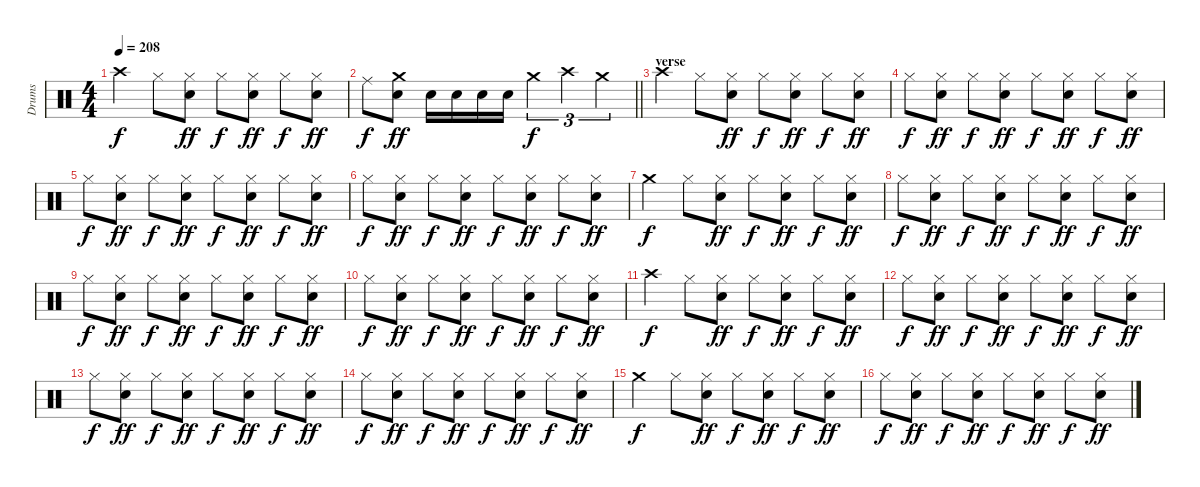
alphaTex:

\track ("Drums" "Drums") {instrument percussion}
\staff {score}
\articulation defaults
\ts (4 4)
\tempo 208
\clef neutral
\ks c "Crash high (hit)".4{dy f} "Hi-Hat (closed)".8
("Hi-Hat (closed)" "Snare (hit) 2").8{dy ff} "Hi-Hat (closed)".8{dy f} ("Hi-Hat (closed)" "Snare (hit) 2").8{dy ff} "Hi-Hat (closed)".8{dy f} ("Hi-Hat (closed)" "Snare (hit) 2").8{dy ff} |
\barLineRight lightlight "Ride (middle)".8{dy f}
("Crash medium (hit)" "Snare (hit) 2").8{dy ff} "Snare (hit) 2".16 "Snare (hit) 2".16 "Snare (hit) 2".16 "Snare (hit) 2".16 "Crash medium (hit)".4{tu (3 2) dy f} "Crash high (hit)".4{tu (3 2)} "Crash medium (hit)".4{tu (3 2)} |
\section ("" "verse")
"Crash high (hit)".4 "Hi-Hat (closed)".8 ("Hi-Hat (closed)" "Snare (hit) 2").8{dy ff} "Hi-Hat (closed)".8{dy f} ("Hi-Hat (closed)" "Snare (hit) 2").8{dy ff} "Hi-Hat (closed)".8{dy f} ("Hi-Hat (closed)" "Snare (hit) 2").8{dy ff} |
"Hi-Hat (closed)".8{dy f} ("Hi-Hat (closed)" "Snare (hit) 2").8{dy ff} "Hi-Hat (closed)".8{dy f} ("Hi-Hat (closed)" "Snare (hit) 2").8{dy ff} "Hi-Hat (closed)".8{dy f} ("Hi-Hat (closed)" "Snare (hit) 2").8{dy ff} "Hi-Hat (closed)".8{dy f} ("Hi-Hat (closed)" "Snare (hit) 2").8{dy ff} |
"Hi-Hat (closed)".8{dy f} ("Hi-Hat (closed)" "Snare (hit) 2").8{dy ff} "Hi-Hat (closed)".8{dy f} ("Hi-Hat (closed)" "Snare (hit) 2").8{dy ff} "Hi-Hat (closed)".8{dy f} ("Hi-Hat (closed)" "Snare (hit) 2").8{dy ff} "Hi-Hat (closed)".8{dy f} ("Hi-Hat (closed)" "Snare (hit) 2").8{dy ff} |
"Hi-Hat (closed)".8{dy f} ("Hi-Hat (closed)" "Snare (hit) 2").8{dy ff} "Hi-Hat (closed)".8{dy f} ("Hi-Hat (closed)" "Snare (hit) 2").8{dy ff} "Hi-Hat (closed)".8{dy f} ("Hi-Hat (closed)" "Snare (hit) 2").8{dy ff} "Hi-Hat (closed)".8{dy f} ("Hi-Hat (closed)" "Snare (hit) 2").8{dy ff} |
"Crash medium (hit)".4{dy f} "Hi-Hat (closed)".8 ("Hi-Hat (closed)" "Snare (hit) 2").8{dy ff} "Hi-Hat (closed)".8{dy f} ("Hi-Hat (closed)" "Snare (hit) 2").8{dy ff} "Hi-Hat (closed)".8{dy f} ("Hi-Hat (closed)" "Snare (hit) 2").8{dy ff} |
"Hi-Hat (closed)".8{dy f} ("Hi-Hat (closed)" "Snare (hit) 2").8{dy ff} "Hi-Hat (closed)".8{dy f} ("Hi-Hat (closed)" "Snare (hit) 2").8{dy ff} "Hi-Hat (closed)".8{dy f} ("Hi-Hat (closed)" "Snare (hit) 2").8{dy ff} "Hi-Hat (closed)".8{dy f} ("Hi-Hat (closed)" "Snare (hit) 2").8{dy ff} |
"Hi-Hat (closed)".8{dy f} ("Hi-Hat (closed)" "Snare (hit) 2").8{dy ff} "Hi-Hat (closed)".8{dy f} ("Hi-Hat (closed)" "Snare (hit) 2").8{dy ff} "Hi-Hat (closed)".8{dy f} ("Hi-Hat (closed)" "Snare (hit) 2").8{dy ff} "Hi-Hat (closed)".8{dy f} ("Hi-Hat (closed)" "Snare (hit) 2").8{dy ff} |
"Hi-Hat (closed)".8{dy f} ("Hi-Hat (closed)" "Snare (hit) 2").8{dy ff} "Hi-Hat (closed)".8{dy f} ("Hi-Hat (closed)" "Snare (hit) 2").8{dy ff} "Hi-Hat (closed)".8{dy f} ("Hi-Hat (closed)" "Snare (hit) 2").8{dy ff} "Hi-Hat (closed)".8{dy f} ("Hi-Hat (closed)" "Snare (hit) 2").8{dy ff} |
"Crash high (hit)".4{dy f} "Hi-Hat (closed)".8 ("Hi-Hat (closed)" "Snare (hit) 2").8{dy ff} "Hi-Hat (closed)".8{dy f} ("Hi-Hat (closed)" "Snare (hit) 2").8{dy ff} "Hi-Hat (closed)".8{dy f} ("Hi-Hat (closed)" "Snare (hit) 2").8{dy ff} |
"Hi-Hat (closed)".8{dy f} ("Hi-Hat (closed)" "Snare (hit) 2").8{dy ff} "Hi-Hat (closed)".8{dy f} ("Hi-Hat (closed)" "Snare (hit) 2").8{dy ff} "Hi-Hat (closed)".8{dy f} ("Hi-Hat (closed)" "Snare (hit) 2").8{dy ff} "Hi-Hat (closed)".8{dy f} ("Hi-Hat (closed)" "Snare (hit) 2").8{dy ff} |
"Hi-Hat (closed)".8{dy f} ("Hi-Hat (closed)" "Snare (hit) 2").8{dy ff} "Hi-Hat (closed)".8{dy f} ("Hi-Hat (closed)" "Snare (hit) 2").8{dy ff} "Hi-Hat (closed)".8{dy f} ("Hi-Hat (closed)" "Snare (hit) 2").8{dy ff} "Hi-Hat (closed)".8{dy f} ("Hi-Hat (closed)" "Snare (hit) 2").8{dy ff} |
"Hi-Hat (closed)".8{dy f} ("Hi-Hat (closed)" "Snare (hit) 2").8{dy ff} "Hi-Hat (closed)".8{dy f} ("Hi-Hat (closed)" "Snare (hit) 2").8{dy ff} "Hi-Hat (closed)".8{dy f} ("Hi-Hat (closed)" "Snare (hit) 2").8{dy ff} "Hi-Hat (closed)".8{dy f} ("Hi-Hat (closed)" "Snare (hit) 2").8{dy ff} |
"Crash medium (hit)".4{dy f} "Hi-Hat (closed)".8 ("Hi-Hat (closed)" "Snare (hit) 2").8{dy ff} "Hi-Hat (closed)".8{dy f} ("Hi-Hat (closed)" "Snare (hit) 2").8{dy ff} "Hi-Hat (closed)".8{dy f} ("Hi-Hat (closed)" "Snare (hit) 2").8{dy ff} |
"Hi-Hat (closed)".8{dy f} ("Hi-Hat (closed)" "Snare (hit) 2").8{dy ff} "Hi-Hat (closed)".8{dy f} ("Hi-Hat (closed)" "Snare (hit) 2").8{dy ff} "Hi-Hat (closed)".8{dy f} ("Hi-Hat (closed)" "Snare (hit) 2").8{dy ff} "Hi-Hat (closed)".8{dy f} ("Hi-Hat (closed)" "Snare (hit) 2").8{dy ff}
